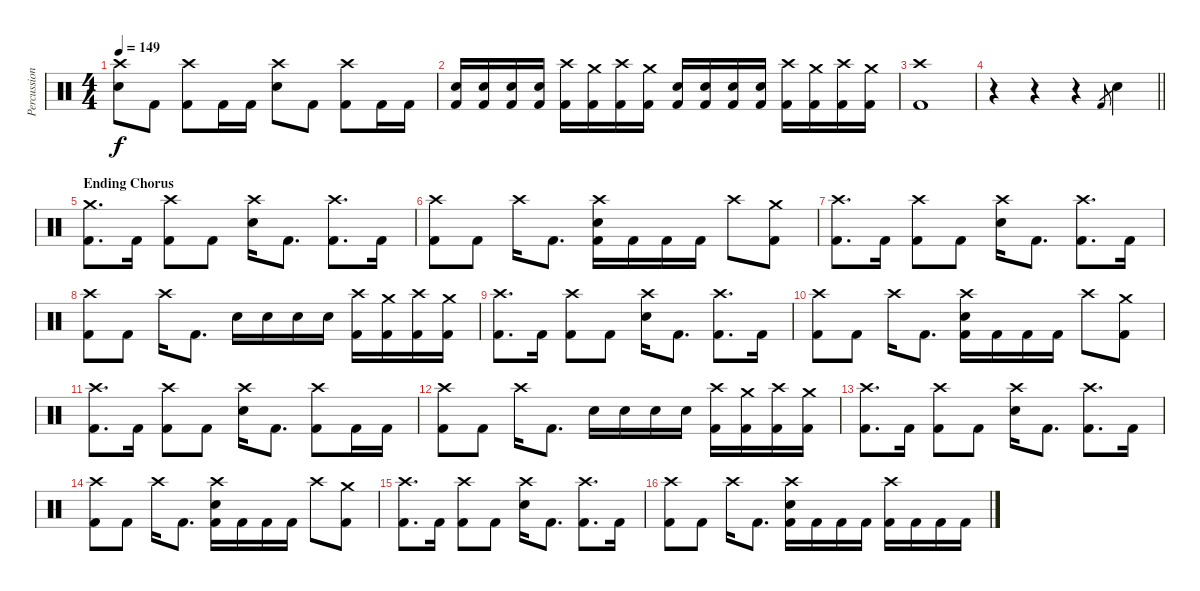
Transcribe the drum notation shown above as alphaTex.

\track ("Percussions" "Percussion") {instrument percussion}
\staff {score}
\articulation defaults
\ts (4 4)
\tempo 149
\clef neutral
\ks c
("Crash high (hit)" "Snare (hit) 2").8{dy f} "Kick (hit) 2".8 ("Crash high (hit)" "Kick (hit) 2").8 "Kick (hit) 2".16 "Kick (hit) 2".16 ("Crash high (hit)" "Snare (hit) 2").8 "Kick (hit) 2".8 ("Crash high (hit)" "Kick (hit) 2").8 "Kick (hit) 2".16 "Kick (hit) 2".16 |
("Snare (hit) 2" "Kick (hit) 2").16 ("Snare (hit) 2" "Kick (hit) 2").16 ("Snare (hit) 2" "Kick (hit) 2").16 ("Snare (hit) 2" "Kick (hit) 2").16 ("Crash high (hit)" "Kick (hit) 2").16 ("Crash medium (hit)" "Kick (hit) 2").16 ("Crash high (hit)" "Kick (hit) 2").16 ("Crash medium (hit)" "Kick (hit) 2").16 ("Snare (hit) 2" "Kick (hit) 2").16 ("Snare (hit) 2" "Kick (hit) 2").16 ("Snare (hit) 2" "Kick (hit) 2").16 ("Snare (hit) 2" "Kick (hit) 2").16 ("Crash high (hit)" "Kick (hit) 2").16 ("Crash medium (hit)" "Kick (hit) 2").16 ("Crash high (hit)" "Kick (hit) 2").16 ("Crash medium (hit)" "Kick (hit) 2").16 |
("Crash high (hit)" "Kick (hit) 2").1 |
\barLineRight lightlight
r.4 r.4 r.4 "Kick (hit) 2".8{gr} "Snare (hit) 2".4 |
\section ("" "Ending Chorus")
("Crash medium (hit)" "Kick (hit) 2").8{d} "Kick (hit) 2".16 ("Crash high (hit)" "Kick (hit) 2").8 "Kick (hit) 2".8 ("Crash high (hit)" "Snare (hit) 2").16 "Kick (hit) 2".8{d} ("Crash high (hit)" "Kick (hit) 2").8{d} "Kick (hit) 2".16 |
("Crash high (hit)" "Kick (hit) 2").8 "Kick (hit) 2".8 "Crash high (hit)".16 "Kick (hit) 2".8{d} ("Crash high (hit)" "Snare (hit) 2" "Kick (hit) 2").16 "Kick (hit) 2".16 "Kick (hit) 2".16 "Kick (hit) 2".16 "Crash high (hit)".8 ("Crash medium (hit)" "Kick (hit) 2").8 |
("Crash high (hit)" "Kick (hit) 2").8{d} "Kick (hit) 2".16 ("Crash high (hit)" "Kick (hit) 2").8 "Kick (hit) 2".8 ("Crash high (hit)" "Snare (hit) 2").16 "Kick (hit) 2".8{d} ("Crash high (hit)" "Kick (hit) 2").8{d} "Kick (hit) 2".16 |
("Crash high (hit)" "Kick (hit) 2").8 "Kick (hit) 2".8 "Crash high (hit)".16 "Kick (hit) 2".8{d} "Snare (hit) 2".16 "Snare (hit) 2".16 "Snare (hit) 2".16 "Snare (hit) 2".16 ("Crash high (hit)" "Kick (hit) 2").16 ("Crash medium (hit)" "Kick (hit) 2").16 ("Crash high (hit)" "Kick (hit) 2").16 ("Crash medium (hit)" "Kick (hit) 2").16 |
("Crash high (hit)" "Kick (hit) 2").8{d} "Kick (hit) 2".16 ("Crash high (hit)" "Kick (hit) 2").8 "Kick (hit) 2".8 ("Crash high (hit)" "Snare (hit) 2").16 "Kick (hit) 2".8{d} ("Crash high (hit)" "Kick (hit) 2").8{d} "Kick (hit) 2".16 |
("Crash high (hit)" "Kick (hit) 2").8 "Kick (hit) 2".8 "Crash high (hit)".16 "Kick (hit) 2".8{d} ("Crash high (hit)" "Snare (hit) 2" "Kick (hit) 2").16 "Kick (hit) 2".16 "Kick (hit) 2".16 "Kick (hit) 2".16 "Crash high (hit)".8 ("Crash medium (hit)" "Kick (hit) 2").8 |
("Crash high (hit)" "Kick (hit) 2").8{d} "Kick (hit) 2".16 ("Crash high (hit)" "Kick (hit) 2").8 "Kick (hit) 2".8 ("Crash high (hit)" "Snare (hit) 2").16 "Kick (hit) 2".8{d} ("Crash high (hit)" "Kick (hit) 2").8 "Kick (hit) 2".16 "Kick (hit) 2".16 |
("Crash high (hit)" "Kick (hit) 2").8 "Kick (hit) 2".8 "Crash high (hit)".16 "Kick (hit) 2".8{d} "Snare (hit) 2".16 "Snare (hit) 2".16 "Snare (hit) 2".16 "Snare (hit) 2".16 ("Crash high (hit)" "Kick (hit) 2").16 ("Crash medium (hit)" "Kick (hit) 2").16 ("Crash high (hit)" "Kick (hit) 2").16 ("Crash medium (hit)" "Kick (hit) 2").16 |
("Crash high (hit)" "Kick (hit) 2").8{d} "Kick (hit) 2".16 ("Crash high (hit)" "Kick (hit) 2").8 "Kick (hit) 2".8 ("Crash high (hit)" "Snare (hit) 2").16 "Kick (hit) 2".8{d} ("Crash high (hit)" "Kick (hit) 2").8{d} "Kick (hit) 2".16 |
("Crash high (hit)" "Kick (hit) 2").8 "Kick (hit) 2".8 "Crash high (hit)".16 "Kick (hit) 2".8{d} ("Crash high (hit)" "Snare (hit) 2" "Kick (hit) 2").16 "Kick (hit) 2".16 "Kick (hit) 2".16 "Kick (hit) 2".16 "Crash high (hit)".8 ("Crash medium (hit)" "Kick (hit) 2").8 |
("Crash high (hit)" "Kick (hit) 2").8{d} "Kick (hit) 2".16 ("Crash high (hit)" "Kick (hit) 2").8 "Kick (hit) 2".8 ("Crash high (hit)" "Snare (hit) 2").16 "Kick (hit) 2".8{d} ("Crash high (hit)" "Kick (hit) 2").8{d} "Kick (hit) 2".16 |
("Crash high (hit)" "Kick (hit) 2").8 "Kick (hit) 2".8 "Crash high (hit)".16 "Kick (hit) 2".8{d} ("Crash high (hit)" "Snare (hit) 2" "Kick (hit) 2").16 "Kick (hit) 2".16 "Kick (hit) 2".16 "Kick (hit) 2".16 ("Crash high (hit)" "Kick (hit) 2").16 "Kick (hit) 2".16 "Kick (hit) 2".16 "Kick (hit) 2".16
